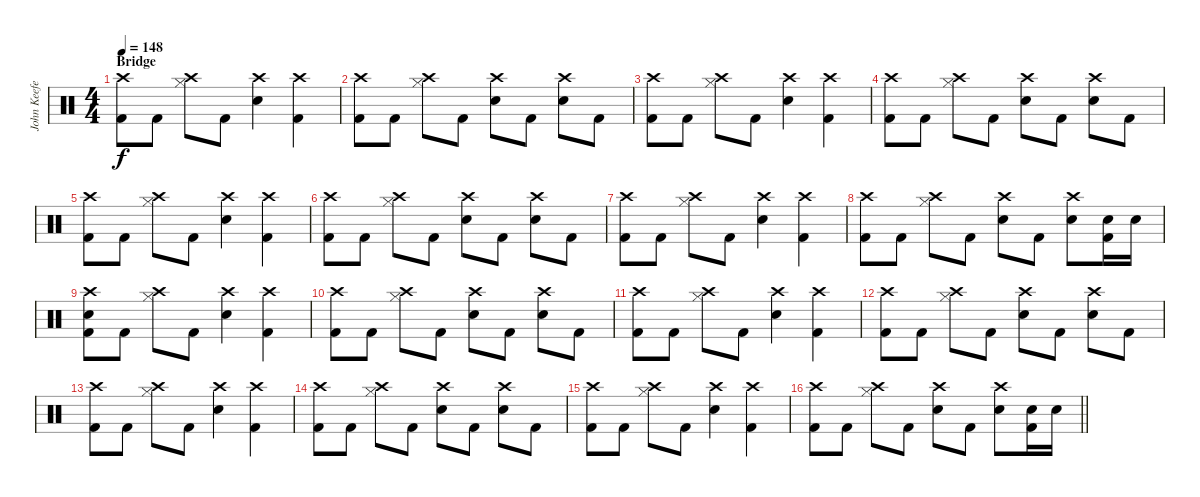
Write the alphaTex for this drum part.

\track ("John Keefe (Percussion)" "John Keefe") {instrument percussion}
\staff {score}
\articulation defaults
\ts (4 4)
\section ("" "Bridge")
\tempo 148
\clef neutral
\ks c
("Crash high (hit)" "Kick (hit) 2").8{dy f} "Kick (hit) 2".8 ("Crash high (hit)" "Hi-Hat (closed)").8 "Kick (hit) 2".8 ("Crash high (hit)" "Snare (hit) 2").4 ("Crash high (hit)" "Kick (hit) 2").4 |
("Crash high (hit)" "Kick (hit) 2").8 "Kick (hit) 2".8 ("Crash high (hit)" "Hi-Hat (closed)").8 "Kick (hit) 2".8 ("Crash high (hit)" "Snare (hit) 2").8 "Kick (hit) 2".8 ("Crash high (hit)" "Snare (hit) 2").8 "Kick (hit) 2".8 |
("Crash high (hit)" "Kick (hit) 2").8 "Kick (hit) 2".8 ("Crash high (hit)" "Hi-Hat (closed)").8 "Kick (hit) 2".8 ("Crash high (hit)" "Snare (hit) 2").4 ("Crash high (hit)" "Kick (hit) 2").4 |
("Crash high (hit)" "Kick (hit) 2").8 "Kick (hit) 2".8 ("Crash high (hit)" "Hi-Hat (closed)").8 "Kick (hit) 2".8 ("Crash high (hit)" "Snare (hit) 2").8 "Kick (hit) 2".8 ("Crash high (hit)" "Snare (hit) 2").8 "Kick (hit) 2".8 |
("Crash high (hit)" "Kick (hit) 2").8 "Kick (hit) 2".8 ("Crash high (hit)" "Hi-Hat (closed)").8 "Kick (hit) 2".8 ("Crash high (hit)" "Snare (hit) 2").4 ("Crash high (hit)" "Kick (hit) 2").4 |
("Crash high (hit)" "Kick (hit) 2").8 "Kick (hit) 2".8 ("Crash high (hit)" "Hi-Hat (closed)").8 "Kick (hit) 2".8 ("Crash high (hit)" "Snare (hit) 2").8 "Kick (hit) 2".8 ("Crash high (hit)" "Snare (hit) 2").8 "Kick (hit) 2".8 |
("Crash high (hit)" "Kick (hit) 2").8 "Kick (hit) 2".8 ("Crash high (hit)" "Hi-Hat (closed)").8 "Kick (hit) 2".8 ("Crash high (hit)" "Snare (hit) 2").4 ("Crash high (hit)" "Kick (hit) 2").4 |
("Crash high (hit)" "Kick (hit) 2").8 "Kick (hit) 2".8 ("Crash high (hit)" "Hi-Hat (closed)").8 "Kick (hit) 2".8 ("Crash high (hit)" "Snare (hit) 2").8 "Kick (hit) 2".8 ("Crash high (hit)" "Snare (hit) 2").8 ("Snare (hit) 2" "Kick (hit) 2").16 "Snare (hit) 2".16 |
("Crash high (hit)" "Snare (hit)" "Kick (hit) 2").8 "Kick (hit) 2".8 ("Crash high (hit)" "Hi-Hat (closed)").8 "Kick (hit) 2".8 ("Crash high (hit)" "Snare (hit) 2").4 ("Crash high (hit)" "Kick (hit) 2").4 |
("Crash high (hit)" "Kick (hit) 2").8 "Kick (hit) 2".8 ("Crash high (hit)" "Hi-Hat (closed)").8 "Kick (hit) 2".8 ("Crash high (hit)" "Snare (hit) 2").8 "Kick (hit) 2".8 ("Crash high (hit)" "Snare (hit) 2").8 "Kick (hit) 2".8 |
("Crash high (hit)" "Kick (hit) 2").8 "Kick (hit) 2".8 ("Crash high (hit)" "Hi-Hat (closed)").8 "Kick (hit) 2".8 ("Crash high (hit)" "Snare (hit) 2").4 ("Crash high (hit)" "Kick (hit) 2").4 |
("Crash high (hit)" "Kick (hit) 2").8 "Kick (hit) 2".8 ("Crash high (hit)" "Hi-Hat (closed)").8 "Kick (hit) 2".8 ("Crash high (hit)" "Snare (hit) 2").8 "Kick (hit) 2".8 ("Crash high (hit)" "Snare (hit) 2").8 "Kick (hit) 2".8 |
("Crash high (hit)" "Kick (hit) 2").8 "Kick (hit) 2".8 ("Crash high (hit)" "Hi-Hat (closed)").8 "Kick (hit) 2".8 ("Crash high (hit)" "Snare (hit) 2").4 ("Crash high (hit)" "Kick (hit) 2").4 |
("Crash high (hit)" "Kick (hit) 2").8 "Kick (hit) 2".8 ("Crash high (hit)" "Hi-Hat (closed)").8 "Kick (hit) 2".8 ("Crash high (hit)" "Snare (hit) 2").8 "Kick (hit) 2".8 ("Crash high (hit)" "Snare (hit) 2").8 "Kick (hit) 2".8 |
("Crash high (hit)" "Kick (hit) 2").8 "Kick (hit) 2".8 ("Crash high (hit)" "Hi-Hat (closed)").8 "Kick (hit) 2".8 ("Crash high (hit)" "Snare (hit) 2").4 ("Crash high (hit)" "Kick (hit) 2").4 |
\barLineRight lightlight
("Crash high (hit)" "Kick (hit) 2").8 "Kick (hit) 2".8 ("Crash high (hit)" "Hi-Hat (closed)").8 "Kick (hit) 2".8 ("Crash high (hit)" "Snare (hit) 2").8 "Kick (hit) 2".8 ("Crash high (hit)" "Snare (hit) 2").8 ("Snare (hit) 2" "Kick (hit) 2").16 "Snare (hit) 2".16
